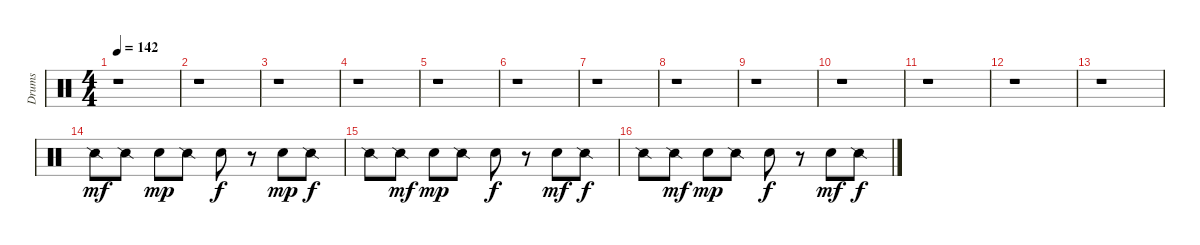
\track ("Drums" "Drums") {instrument percussion}
\staff {score}
\articulation defaults
\ts (4 4)
\tempo 142
\clef neutral
\ks c
r.1{dy f} |
r.1 |
r.1 |
r.1 |
r.1 |
r.1 |
r.1 |
r.1 |
r.1 |
r.1 |
r.1 |
r.1 |
r.1 |
"Snare (side stick) 2".8{dy mf} "Snare (side stick) 2".8 "Electric Snare (hit)".8{dy mp} "Snare (side stick) 2".8 "Electric Snare (hit)".8{dy f} r.8 "Electric Snare (hit)".8{dy mp} "Snare (side stick) 2".8{dy f} |
"Snare (side stick) 2".8 "Snare (side stick) 2".8{dy mf} "Electric Snare (hit)".8{dy mp} "Snare (side stick) 2".8 "Electric Snare (hit)".8{dy f} r.8 "Electric Snare (hit)".8{dy mf} "Snare (side stick) 2".8{dy f} |
"Snare (side stick) 2".8 "Snare (side stick) 2".8{dy mf} "Electric Snare (hit)".8{dy mp} "Snare (side stick) 2".8 "Electric Snare (hit)".8{dy f} r.8 "Electric Snare (hit)".8{dy mf} "Snare (side stick) 2".8{dy f}
